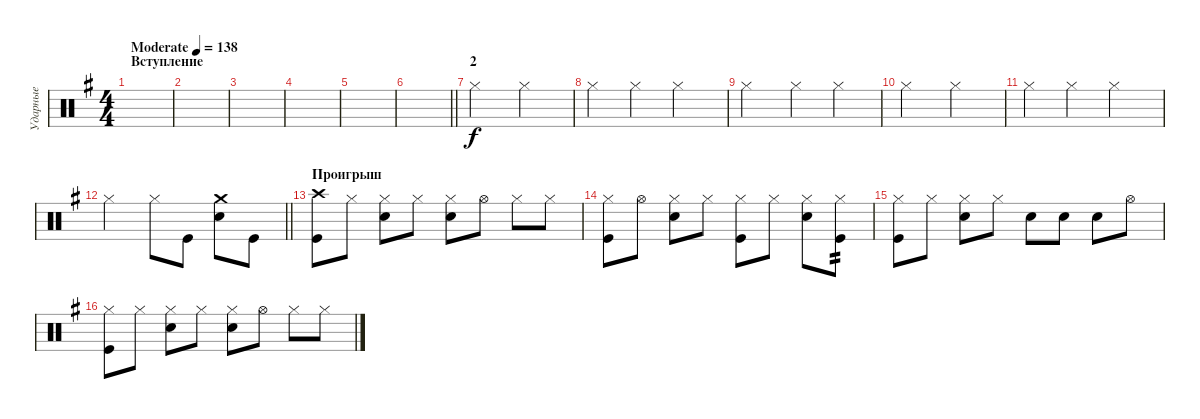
\track ("Ударные" "Ударные") {instrument percussion}
\staff {score}
\articulation defaults
\ts (4 4)
\section ("" "Вступление")
\tempo (138 "Moderate")
\clef neutral
\ks eminor
|
|
|
|
|
\barLineRight lightlight
|
\section ("" "2")
"Hi-Hat (closed)".2 "Hi-Hat (closed)".2 |
"Hi-Hat (closed)".4 "Hi-Hat (closed)".4 "Hi-Hat (closed)".2 |
"Hi-Hat (closed)".2 "Hi-Hat (closed)".4 "Hi-Hat (closed)".4 |
"Hi-Hat (closed)".2 "Hi-Hat (closed)".2 |
"Hi-Hat (closed)".4 "Hi-Hat (closed)".4 "Hi-Hat (closed)".2 |
\barLineRight lightlight "Hi-Hat (closed)".2 "Hi-Hat (closed)".8 "Kick (hit)".8
("Crash medium (hit)" "Electric Snare (hit)").8 "Kick (hit)".8 |
\section ("" "Проигрыш")
("Crash high (hit)" "Kick (hit)").8 "Hi-Hat (closed)".8 ("Hi-Hat (closed)" "Electric Snare (hit)").8 "Hi-Hat (closed)".8 ("Hi-Hat (closed)" "Electric Snare (hit)").8 "Hi-Hat (open)".8 "Hi-Hat (closed)".8 "Hi-Hat (closed)".8 |
("Hi-Hat (closed)" "Kick (hit)").8 "Hi-Hat (open)".8 ("Hi-Hat (closed)" "Electric Snare (hit)").8 "Hi-Hat (closed)".8 ("Hi-Hat (closed)" "Kick (hit)").8 "Hi-Hat (closed)".8 ("Hi-Hat (closed)" "Electric Snare (hit)").8 ("Hi-Hat (closed)" "Kick (hit)").8{tp 2} |
("Hi-Hat (closed)" "Kick (hit)").8 "Hi-Hat (closed)".8 ("Hi-Hat (closed)" "Electric Snare (hit)").8 "Hi-Hat (closed)".8 "Electric Snare (hit)".8 "Electric Snare (hit)".8 "Electric Snare (hit)".8 "Hi-Hat (open)".8 |
("Hi-Hat (closed)" "Kick (hit)").8 "Hi-Hat (closed)".8 ("Hi-Hat (closed)" "Electric Snare (hit)").8 "Hi-Hat (closed)".8 ("Hi-Hat (closed)" "Electric Snare (hit)").8 "Hi-Hat (open)".8 "Hi-Hat (closed)".8 "Hi-Hat (closed)".8
